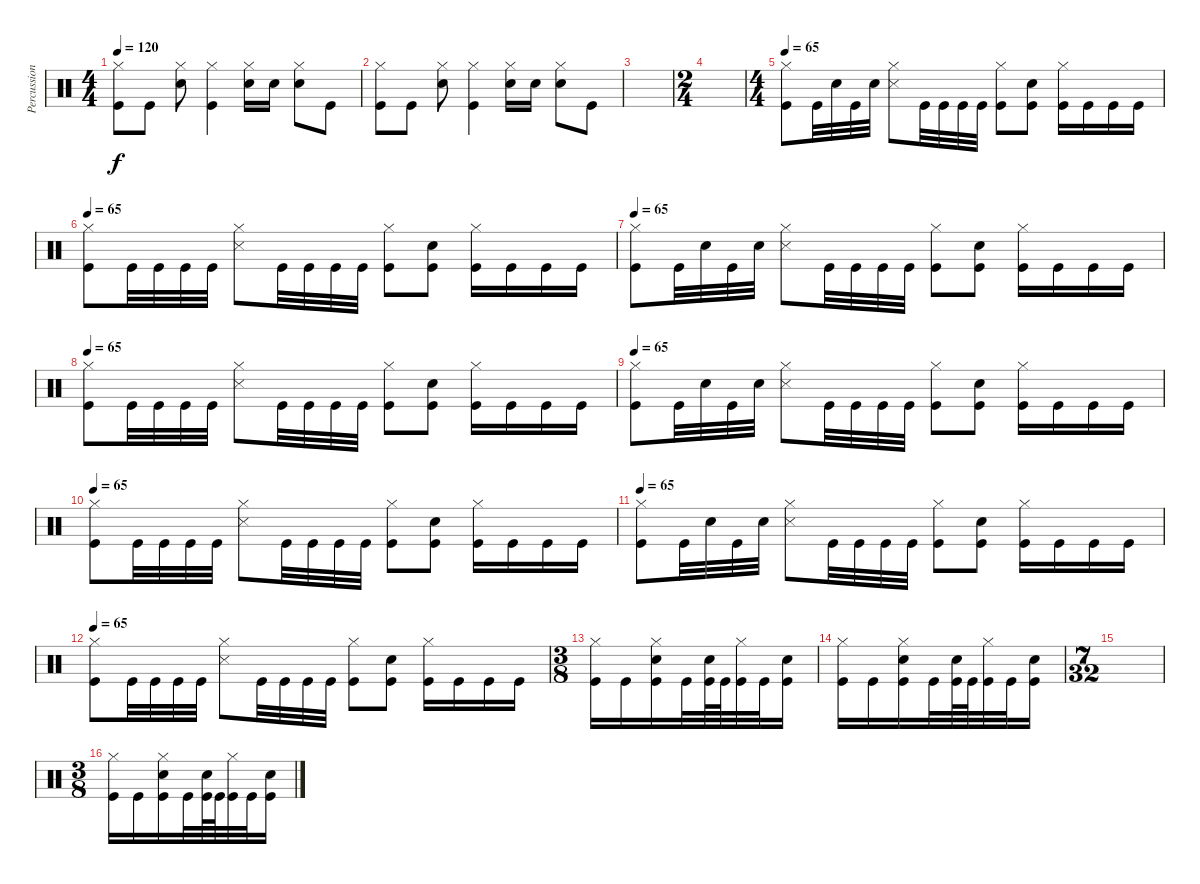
\track ("Percussion" "Percussion") {instrument percussion}
\staff {score}
\articulation defaults
\ts (4 4)
\tempo 120
\clef neutral
\ks c
("Hi-Hat (closed)" "Kick (hit)").8{dy f} "Kick (hit)".8 ("Hi-Hat (closed)" "Electric Snare (hit)").8 ("Hi-Hat (closed)" "Kick (hit)").4 ("Hi-Hat (closed)" "Electric Snare (hit)").16 "Electric Snare (hit)".16 ("Hi-Hat (closed)" "Electric Snare (hit)").8 "Kick (hit)".8 |
("Hi-Hat (closed)" "Kick (hit)").8 "Kick (hit)".8 ("Hi-Hat (closed)" "Electric Snare (hit)").8 ("Hi-Hat (closed)" "Kick (hit)").4 ("Hi-Hat (closed)" "Electric Snare (hit)").16 "Electric Snare (hit)".16 ("Hi-Hat (closed)" "Electric Snare (hit)").8 "Kick (hit)".8 |
|
\ts (2 4)
|
\ts (4 4)
\tempo 65
("Hi-Hat (closed)" "Kick (hit)").8 "Kick (hit)".32 "Electric Snare (hit)".32 "Kick (hit)".32 "Electric Snare (hit)".32 ("Hi-Hat (closed)" "Snare (side stick) 3").8 "Kick (hit)".32 "Kick (hit)".32 "Kick (hit)".32 "Kick (hit)".32 ("Hi-Hat (closed)" "Kick (hit)").8 ("Electric Snare (hit)" "Kick (hit)").8 ("Hi-Hat (closed)" "Kick (hit)").16 "Kick (hit)".16 "Kick (hit)".16 "Kick (hit)".16 |
\tempo 65
("Hi-Hat (closed)" "Kick (hit)").8 "Kick (hit)".32 "Kick (hit)".32 "Kick (hit)".32 "Kick (hit)".32 ("Hi-Hat (closed)" "Snare (side stick) 3").8 "Kick (hit)".32 "Kick (hit)".32 "Kick (hit)".32 "Kick (hit)".32 ("Hi-Hat (closed)" "Kick (hit)").8 ("Electric Snare (hit)" "Kick (hit)").8 ("Hi-Hat (closed)" "Kick (hit)").16 "Kick (hit)".16 "Kick (hit)".16 "Kick (hit)".16 |
\tempo 65
("Hi-Hat (closed)" "Kick (hit)").8 "Kick (hit)".32 "Electric Snare (hit)".32 "Kick (hit)".32 "Electric Snare (hit)".32 ("Hi-Hat (closed)" "Snare (side stick) 3").8 "Kick (hit)".32 "Kick (hit)".32 "Kick (hit)".32 "Kick (hit)".32 ("Hi-Hat (closed)" "Kick (hit)").8 ("Electric Snare (hit)" "Kick (hit)").8 ("Hi-Hat (closed)" "Kick (hit)").16 "Kick (hit)".16 "Kick (hit)".16 "Kick (hit)".16 |
\tempo 65
("Hi-Hat (closed)" "Kick (hit)").8 "Kick (hit)".32 "Kick (hit)".32 "Kick (hit)".32 "Kick (hit)".32 ("Hi-Hat (closed)" "Snare (side stick) 3").8 "Kick (hit)".32 "Kick (hit)".32 "Kick (hit)".32 "Kick (hit)".32 ("Hi-Hat (closed)" "Kick (hit)").8 ("Electric Snare (hit)" "Kick (hit)").8 ("Hi-Hat (closed)" "Kick (hit)").16 "Kick (hit)".16 "Kick (hit)".16 "Kick (hit)".16 |
\tempo 65
("Hi-Hat (closed)" "Kick (hit)").8 "Kick (hit)".32 "Electric Snare (hit)".32 "Kick (hit)".32 "Electric Snare (hit)".32 ("Hi-Hat (closed)" "Snare (side stick) 3").8 "Kick (hit)".32 "Kick (hit)".32 "Kick (hit)".32 "Kick (hit)".32 ("Hi-Hat (closed)" "Kick (hit)").8 ("Electric Snare (hit)" "Kick (hit)").8 ("Hi-Hat (closed)" "Kick (hit)").16 "Kick (hit)".16 "Kick (hit)".16 "Kick (hit)".16 |
\tempo 65
("Hi-Hat (closed)" "Kick (hit)").8 "Kick (hit)".32 "Kick (hit)".32 "Kick (hit)".32 "Kick (hit)".32 ("Hi-Hat (closed)" "Snare (side stick) 3").8 "Kick (hit)".32 "Kick (hit)".32 "Kick (hit)".32 "Kick (hit)".32 ("Hi-Hat (closed)" "Kick (hit)").8 ("Electric Snare (hit)" "Kick (hit)").8 ("Hi-Hat (closed)" "Kick (hit)").16 "Kick (hit)".16 "Kick (hit)".16 "Kick (hit)".16 |
\tempo 65
("Hi-Hat (closed)" "Kick (hit)").8 "Kick (hit)".32 "Electric Snare (hit)".32 "Kick (hit)".32 "Electric Snare (hit)".32 ("Hi-Hat (closed)" "Snare (side stick) 3").8 "Kick (hit)".32 "Kick (hit)".32 "Kick (hit)".32 "Kick (hit)".32 ("Hi-Hat (closed)" "Kick (hit)").8 ("Electric Snare (hit)" "Kick (hit)").8 ("Hi-Hat (closed)" "Kick (hit)").16 "Kick (hit)".16 "Kick (hit)".16 "Kick (hit)".16 |
\tempo 65
("Hi-Hat (closed)" "Kick (hit)").8 "Kick (hit)".32 "Kick (hit)".32 "Kick (hit)".32 "Kick (hit)".32 ("Hi-Hat (closed)" "Snare (side stick) 3").8 "Kick (hit)".32 "Kick (hit)".32 "Kick (hit)".32 "Kick (hit)".32 ("Hi-Hat (closed)" "Kick (hit)").8 ("Electric Snare (hit)" "Kick (hit)").8 ("Hi-Hat (closed)" "Kick (hit)").16 "Kick (hit)".16 "Kick (hit)".16 "Kick (hit)".16 |
\ts (3 8)
("Hi-Hat (closed)" "Kick (hit)").16 "Kick (hit)".16 ("Hi-Hat (closed)" "Electric Snare (hit)" "Kick (hit)").16 "Kick (hit)".32 ("Electric Snare (hit)" "Kick (hit)").64 "Kick (hit)".64 ("Hi-Hat (closed)" "Kick (hit)").32 "Kick (hit)".32 ("Electric Snare (hit)" "Kick (hit)").16 |
("Hi-Hat (closed)" "Kick (hit)").16 "Kick (hit)".16 ("Hi-Hat (closed)" "Electric Snare (hit)" "Kick (hit)").16 "Kick (hit)".32 ("Electric Snare (hit)" "Kick (hit)").64 "Kick (hit)".64 ("Hi-Hat (closed)" "Kick (hit)").32 "Kick (hit)".32 ("Electric Snare (hit)" "Kick (hit)").16 |
\ts (7 32)
|
\ts (3 8)
("Hi-Hat (closed)" "Kick (hit)").16 "Kick (hit)".16 ("Hi-Hat (closed)" "Electric Snare (hit)" "Kick (hit)").16 "Kick (hit)".32 ("Electric Snare (hit)" "Kick (hit)").64 "Kick (hit)".64 ("Hi-Hat (closed)" "Kick (hit)").32 "Kick (hit)".32 ("Electric Snare (hit)" "Kick (hit)").16
